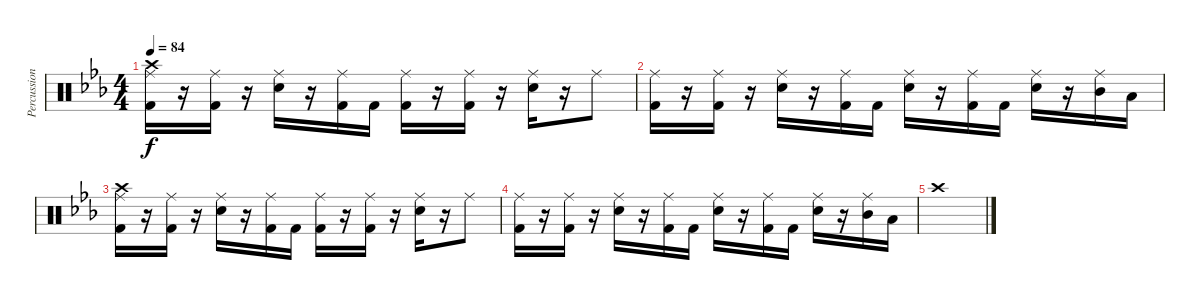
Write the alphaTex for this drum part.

\track ("Percussion" "Percussion") {instrument percussion}
\staff {score}
\articulation defaults
\ts (4 4)
\tempo 84
\clef neutral
\ks eb
("Ride (middle)" "Crash high (hit)" "Kick (hit) 2").16{dy f} r.16 ("Ride (middle)" "Kick (hit) 2").16 r.16 ("Ride (middle)" "Electric Snare (hit)").16 r.16 ("Ride (middle)" "Kick (hit) 2").16 "Kick (hit) 2".16 ("Ride (middle)" "Kick (hit) 2").16 r.16 ("Ride (middle)" "Kick (hit) 2").16 r.16 ("Ride (middle)" "Electric Snare (hit)").16 r.16 "Ride (middle)".8 |
("Ride (middle)" "Kick (hit) 2").16 r.16 ("Ride (middle)" "Kick (hit) 2").16 r.16 ("Ride (middle)" "Electric Snare (hit)").16 r.16 ("Ride (middle)" "Kick (hit) 2").16 "Kick (hit) 2".16 ("Ride (middle)" "Electric Snare (hit)").16 r.16 ("Ride (middle)" "Kick (hit) 2").16 "Kick (hit) 2".16 ("Ride (middle)" "Electric Snare (hit)").16 r.16 ("Ride (middle)" "Mid Tom (hit)").16 "Low Tom (hit)".16 |
("Ride (middle)" "Crash high (hit)" "Kick (hit) 2").16 r.16 ("Ride (middle)" "Kick (hit) 2").16 r.16 ("Ride (middle)" "Electric Snare (hit)").16 r.16 ("Ride (middle)" "Kick (hit) 2").16 "Kick (hit) 2".16 ("Ride (middle)" "Kick (hit) 2").16 r.16 ("Ride (middle)" "Kick (hit) 2").16 r.16 ("Ride (middle)" "Electric Snare (hit)").16 r.16 "Ride (middle)".8 |
("Ride (middle)" "Kick (hit) 2").16 r.16 ("Ride (middle)" "Kick (hit) 2").16 r.16 ("Ride (middle)" "Electric Snare (hit)").16 r.16 ("Ride (middle)" "Kick (hit) 2").16 "Kick (hit) 2".16 ("Ride (middle)" "Electric Snare (hit)").16 r.16 ("Ride (middle)" "Kick (hit) 2").16 "Kick (hit) 2".16 ("Ride (middle)" "Electric Snare (hit)").16 r.16 ("Ride (middle)" "Mid Tom (hit)").16 "Low Tom (hit)".16 |
"Crash high (hit)".1
